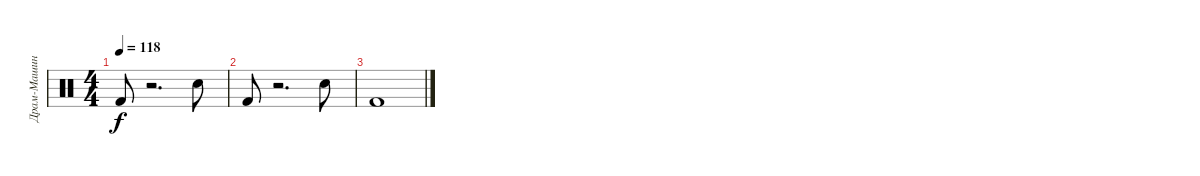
\track ("Драм-Машина" "Драм-Машин") {instrument percussion}
\staff {score}
\articulation defaults
\ts (4 4)
\tempo 118
\clef neutral
\ks c "Kick (hit) 2".8{dy f}
r.2{d} "Electric Snare (hit)".8 |
"Kick (hit) 2".8 r.2{d} "Electric Snare (hit)".8 |
"Kick (hit) 2".1
